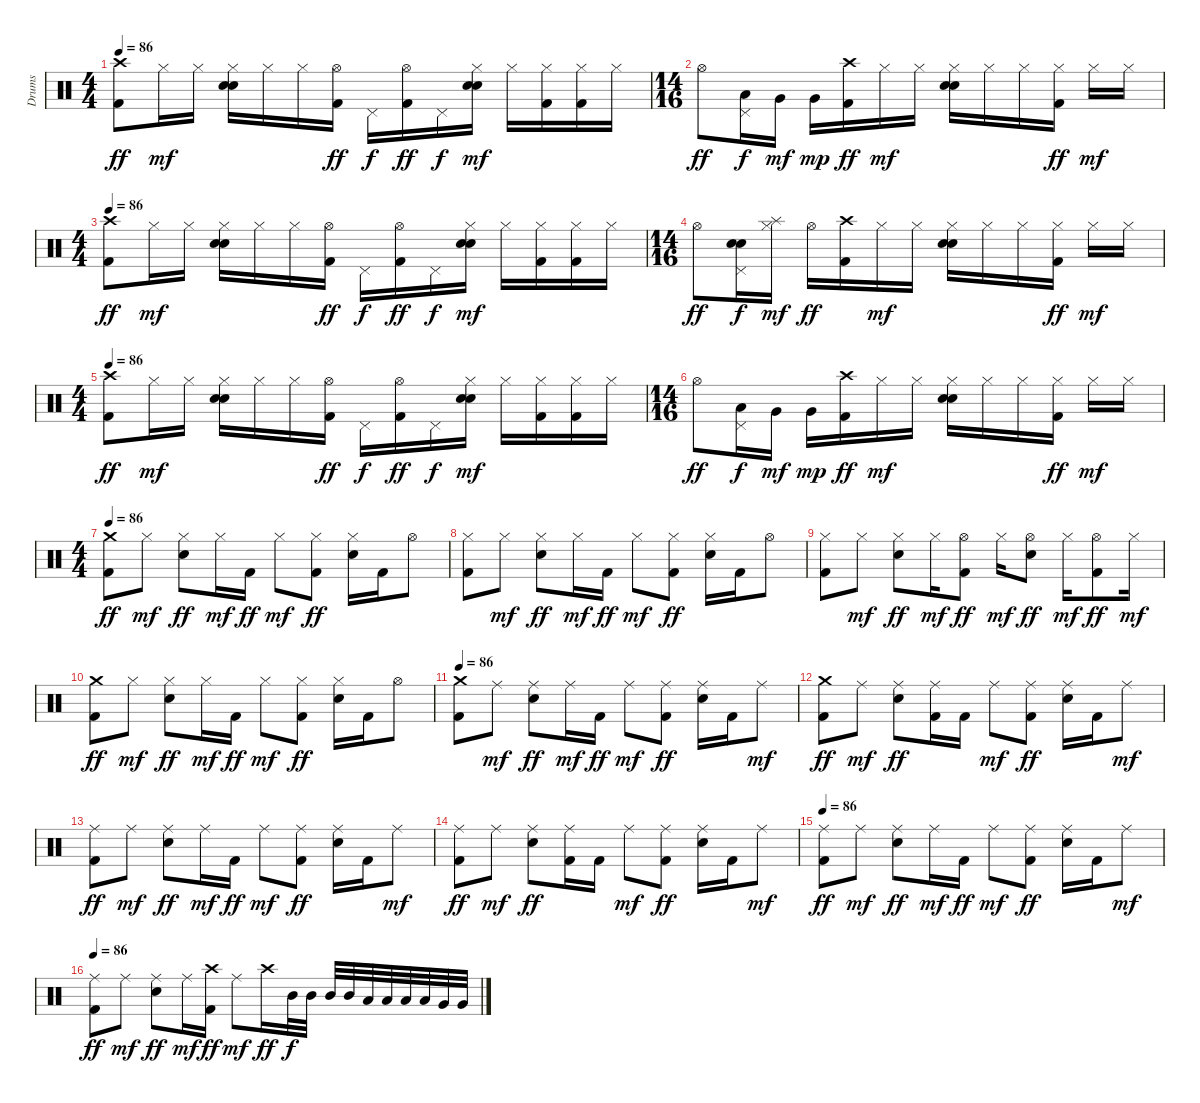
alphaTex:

\track ("Drums" "Drums") {instrument percussion}
\staff {score}
\articulation defaults
\ts (4 4)
\tempo 86
\clef neutral
\ks c
("Crash high (hit)" "Kick (hit) 2").8{dy ff} "Hi-Hat (closed)".16{dy mf} "Hi-Hat (closed)".16 ("Hi-Hat (closed)" "Electric Snare (hit)" "Metronome (bell)").16 "Hi-Hat (closed)".16 "Hi-Hat (closed)".16 ("Hi-Hat (open)" "Kick (hit) 2").16{dy ff} "Pedal Hi-Hat (hit)".16{dy f} ("Hi-Hat (open)" "Kick (hit) 2").16{dy ff} "Pedal Hi-Hat (hit)".16{dy f} ("Hi-Hat (closed)" "Electric Snare (hit)" "Metronome (bell)").16{dy mf} "Hi-Hat (closed)".16 ("Hi-Hat (closed)" "Kick (hit) 2").16 ("Hi-Hat (closed)" "Kick (hit) 2").16 "Hi-Hat (closed)".16 |
\ts (14 16)
"Hi-Hat (open)".8{dy ff} ("Pedal Hi-Hat (hit)" "Low Tom (hit)").16{dy f} "Very Low Tom (hit)".16{dy mf} "Very Low Tom (hit)".16{dy mp} ("Crash high (hit)" "Kick (hit) 2").16{dy ff} "Hi-Hat (closed)".16{dy mf} "Hi-Hat (closed)".16 ("Hi-Hat (closed)" "Electric Snare (hit)" "Metronome (bell)").16 "Hi-Hat (closed)".16 "Hi-Hat (closed)".16 ("Hi-Hat (closed)" "Kick (hit) 2").16{dy ff} "Hi-Hat (closed)".16{dy mf} "Hi-Hat (closed)".16 |
\ts (4 4)
\tempo 86
("Crash high (hit)" "Kick (hit) 2").8{dy ff} "Hi-Hat (closed)".16{dy mf} "Hi-Hat (closed)".16 ("Hi-Hat (closed)" "Electric Snare (hit)" "Metronome (bell)").16 "Hi-Hat (closed)".16 "Hi-Hat (closed)".16 ("Hi-Hat (open)" "Kick (hit) 2").16{dy ff} "Pedal Hi-Hat (hit)".16{dy f} ("Hi-Hat (open)" "Kick (hit) 2").16{dy ff} "Pedal Hi-Hat (hit)".16{dy f} ("Hi-Hat (closed)" "Electric Snare (hit)" "Metronome (bell)").16{dy mf} "Hi-Hat (closed)".16 ("Hi-Hat (closed)" "Kick (hit) 2").16 ("Hi-Hat (closed)" "Kick (hit) 2").16 "Hi-Hat (closed)".16 |
\ts (14 16)
"Hi-Hat (open)".8{dy ff} ("Pedal Hi-Hat (hit)" "Electric Snare (hit)" "Metronome (bell)").16{dy f} ("Splash (hit)" "Hi-Hat (closed)").16{dy mf} "Hi-Hat (open)".16{dy ff} ("Crash high (hit)" "Kick (hit) 2").16 "Hi-Hat (closed)".16{dy mf} "Hi-Hat (closed)".16 ("Hi-Hat (closed)" "Electric Snare (hit)" "Metronome (bell)").16 "Hi-Hat (closed)".16 "Hi-Hat (closed)".16 ("Hi-Hat (closed)" "Kick (hit) 2").16{dy ff} "Hi-Hat (closed)".16{dy mf} "Hi-Hat (closed)".16 |
\ts (4 4)
\tempo 86
("Crash high (hit)" "Kick (hit) 2").8{dy ff} "Hi-Hat (closed)".16{dy mf} "Hi-Hat (closed)".16 ("Hi-Hat (closed)" "Electric Snare (hit)" "Metronome (bell)").16 "Hi-Hat (closed)".16 "Hi-Hat (closed)".16 ("Hi-Hat (open)" "Kick (hit) 2").16{dy ff} "Pedal Hi-Hat (hit)".16{dy f} ("Hi-Hat (open)" "Kick (hit) 2").16{dy ff} "Pedal Hi-Hat (hit)".16{dy f} ("Hi-Hat (closed)" "Electric Snare (hit)" "Metronome (bell)").16{dy mf} "Hi-Hat (closed)".16 ("Hi-Hat (closed)" "Kick (hit) 2").16 ("Hi-Hat (closed)" "Kick (hit) 2").16 "Hi-Hat (closed)".16 |
\ts (14 16)
"Hi-Hat (open)".8{dy ff} ("Pedal Hi-Hat (hit)" "Low Tom (hit)").16{dy f} "Very Low Tom (hit)".16{dy mf} "Very Low Tom (hit)".16{dy mp} ("Crash high (hit)" "Kick (hit) 2").16{dy ff} "Hi-Hat (closed)".16{dy mf} "Hi-Hat (closed)".16 ("Hi-Hat (closed)" "Electric Snare (hit)" "Metronome (bell)").16 "Hi-Hat (closed)".16 "Hi-Hat (closed)".16 ("Hi-Hat (closed)" "Kick (hit) 2").16{dy ff} "Hi-Hat (closed)".16{dy mf} "Hi-Hat (closed)".16 |
\ts (4 4)
\tempo 86
("Crash medium (hit)" "Kick (hit) 2").8{dy ff} "Hi-Hat (closed)".8{dy mf} ("Hi-Hat (closed)" "Electric Snare (hit)").8{dy ff} "Hi-Hat (closed)".16{dy mf} "Kick (hit) 2".16{dy ff} "Hi-Hat (closed)".8{dy mf} ("Hi-Hat (closed)" "Kick (hit) 2").8{dy ff} ("Hi-Hat (closed)" "Electric Snare (hit)").16 "Kick (hit) 2".16 "Hi-Hat (open)".8 |
("Hi-Hat (closed)" "Kick (hit) 2").8 "Hi-Hat (closed)".8{dy mf} ("Hi-Hat (closed)" "Electric Snare (hit)").8{dy ff} "Hi-Hat (closed)".16{dy mf} "Kick (hit) 2".16{dy ff} "Hi-Hat (closed)".8{dy mf} ("Hi-Hat (closed)" "Kick (hit) 2").8{dy ff} ("Hi-Hat (closed)" "Electric Snare (hit)").16 "Kick (hit) 2".16 "Hi-Hat (open)".8 |
("Hi-Hat (closed)" "Kick (hit) 2").8 "Hi-Hat (closed)".8{dy mf} ("Hi-Hat (closed)" "Electric Snare (hit)").8{dy ff} "Hi-Hat (closed)".16{dy mf} ("Hi-Hat (open)" "Kick (hit) 2").8{dy ff} "Hi-Hat (closed)".16{dy mf} ("Hi-Hat (open)" "Electric Snare (hit)").8{dy ff} "Hi-Hat (closed)".16{dy mf} ("Hi-Hat (open)" "Kick (hit) 2").8{dy ff} "Hi-Hat (closed)".16{dy mf} |
("Crash medium (hit)" "Kick (hit) 2").8{dy ff} "Hi-Hat (closed)".8{dy mf} ("Hi-Hat (closed)" "Electric Snare (hit)").8{dy ff} "Hi-Hat (closed)".16{dy mf} "Kick (hit) 2".16{dy ff} "Hi-Hat (closed)".8{dy mf} ("Hi-Hat (closed)" "Kick (hit) 2").8{dy ff} ("Hi-Hat (closed)" "Electric Snare (hit)").16 "Kick (hit) 2".16 "Hi-Hat (open)".8 |
\tempo 86
("Crash medium (hit)" "Kick (hit) 2").8 "Ride (middle)".8{dy mf} ("Ride (middle)" "Electric Snare (hit)").8{dy ff} "Ride (middle)".16{dy mf} "Kick (hit) 2".16{dy ff} "Ride (middle)".8{dy mf} ("Ride (middle)" "Kick (hit) 2").8{dy ff} ("Ride (middle)" "Electric Snare (hit)").16 "Kick (hit) 2".16 "Ride (middle)".8{dy mf} |
("Crash medium (hit)" "Kick (hit) 2").8{dy ff} "Ride (middle)".8{dy mf} ("Ride (middle)" "Electric Snare (hit)").8{dy ff} ("Ride (middle)" "Kick (hit) 2").16 "Kick (hit) 2".16 "Ride (middle)".8{dy mf} ("Ride (middle)" "Kick (hit) 2").8{dy ff} ("Ride (middle)" "Electric Snare (hit)").16 "Kick (hit) 2".16 "Ride (middle)".8{dy mf} |
("Ride (middle)" "Kick (hit) 2").8{dy ff} "Ride (middle)".8{dy mf} ("Ride (middle)" "Electric Snare (hit)").8{dy ff} "Ride (middle)".16{dy mf} "Kick (hit) 2".16{dy ff} "Ride (middle)".8{dy mf} ("Ride (middle)" "Kick (hit) 2").8{dy ff} ("Ride (middle)" "Electric Snare (hit)").16 "Kick (hit) 2".16 "Ride (middle)".8{dy mf} |
("Ride (middle)" "Kick (hit) 2").8{dy ff} "Ride (middle)".8{dy mf} ("Ride (middle)" "Electric Snare (hit)").8{dy ff} ("Ride (middle)" "Kick (hit) 2").16 "Kick (hit) 2".16 "Ride (middle)".8{dy mf} ("Ride (middle)" "Kick (hit) 2").8{dy ff} ("Ride (middle)" "Electric Snare (hit)").16 "Kick (hit) 2".16 "Ride (middle)".8{dy mf} |
\tempo 86
("Ride (middle)" "Kick (hit) 2").8{dy ff} "Ride (middle)".8{dy mf} ("Ride (middle)" "Electric Snare (hit)").8{dy ff} "Ride (middle)".16{dy mf} "Kick (hit) 2".16{dy ff} "Ride (middle)".8{dy mf} ("Ride (middle)" "Kick (hit) 2").8{dy ff} ("Ride (middle)" "Electric Snare (hit)").16 "Kick (hit) 2".16 "Ride (middle)".8{dy mf} |
\tempo 86
("Ride (middle)" "Kick (hit) 2").8{dy ff} "Ride (middle)".8{dy mf} ("Ride (middle)" "Electric Snare (hit)").8{dy ff} "Ride (middle)".16{dy mf} ("Crash high (hit)" "Kick (hit) 2").16{dy ff} "Ride (middle)".8{dy mf} "Crash high (hit)".16{dy ff} "Mid Tom (hit)".32{dy f} "Mid Tom (hit)".32 "Mid Tom (hit)".32 "Mid Tom (hit)".32 "Low Tom (hit)".32 "Low Tom (hit)".32 "Low Tom (hit)".32 "Low Tom (hit)".32 "Very Low Tom (hit)".32 "Very Low Tom (hit)".32
